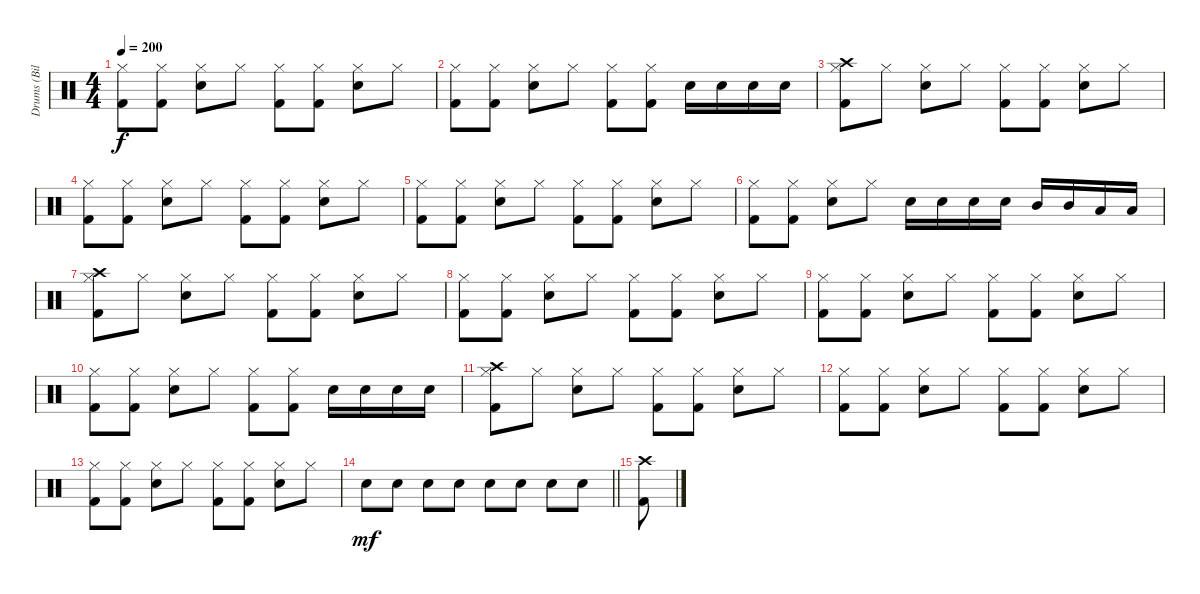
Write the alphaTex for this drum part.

\track ("Drums (Bill Stevenson)" "Drums (Bil") {instrument percussion}
\staff {score}
\articulation defaults
\ts (4 4)
\tempo 200
\clef neutral
\ks c
("Hi-Hat (closed)" "Kick (hit) 2").8{dy f} ("Hi-Hat (closed)" "Kick (hit) 2").8 ("Hi-Hat (closed)" "Electric Snare (hit)").8 "Hi-Hat (closed)".8 ("Hi-Hat (closed)" "Kick (hit) 2").8 ("Hi-Hat (closed)" "Kick (hit) 2").8 ("Hi-Hat (closed)" "Electric Snare (hit)").8 "Hi-Hat (closed)".8 |
("Hi-Hat (closed)" "Kick (hit) 2").8 ("Hi-Hat (closed)" "Kick (hit) 2").8 ("Hi-Hat (closed)" "Electric Snare (hit)").8 "Hi-Hat (closed)".8 ("Hi-Hat (closed)" "Kick (hit) 2").8 ("Hi-Hat (closed)" "Kick (hit) 2").8 "Electric Snare (hit)".16 "Electric Snare (hit)".16 "Electric Snare (hit)".16 "Electric Snare (hit)".16 |
("Hi-Hat (closed)" "Crash high (hit)" "Kick (hit) 2").8 "Hi-Hat (closed)".8 ("Hi-Hat (closed)" "Electric Snare (hit)").8 "Hi-Hat (closed)".8 ("Hi-Hat (closed)" "Kick (hit) 2").8 ("Hi-Hat (closed)" "Kick (hit) 2").8 ("Hi-Hat (closed)" "Electric Snare (hit)").8 "Hi-Hat (closed)".8 |
("Hi-Hat (closed)" "Kick (hit) 2").8 ("Hi-Hat (closed)" "Kick (hit) 2").8 ("Hi-Hat (closed)" "Electric Snare (hit)").8 "Hi-Hat (closed)".8 ("Hi-Hat (closed)" "Kick (hit) 2").8 ("Hi-Hat (closed)" "Kick (hit) 2").8 ("Hi-Hat (closed)" "Electric Snare (hit)").8 "Hi-Hat (closed)".8 |
("Hi-Hat (closed)" "Kick (hit) 2").8 ("Hi-Hat (closed)" "Kick (hit) 2").8 ("Hi-Hat (closed)" "Electric Snare (hit)").8 "Hi-Hat (closed)".8 ("Hi-Hat (closed)" "Kick (hit) 2").8 ("Hi-Hat (closed)" "Kick (hit) 2").8 ("Hi-Hat (closed)" "Electric Snare (hit)").8 "Hi-Hat (closed)".8 |
("Hi-Hat (closed)" "Kick (hit) 2").8 ("Hi-Hat (closed)" "Kick (hit) 2").8 ("Hi-Hat (closed)" "Electric Snare (hit)").8 "Hi-Hat (closed)".8 "Electric Snare (hit)".16 "Electric Snare (hit)".16 "Electric Snare (hit)".16 "Electric Snare (hit)".16 "Mid Tom (hit)".16 "Mid Tom (hit)".16 "Low Tom (hit)".16 "Low Tom (hit)".16 |
("Hi-Hat (closed)" "Crash high (hit)" "Kick (hit) 2").8 "Hi-Hat (closed)".8 ("Hi-Hat (closed)" "Electric Snare (hit)").8 "Hi-Hat (closed)".8 ("Hi-Hat (closed)" "Kick (hit) 2").8 ("Hi-Hat (closed)" "Kick (hit) 2").8 ("Hi-Hat (closed)" "Electric Snare (hit)").8 "Hi-Hat (closed)".8 |
("Hi-Hat (closed)" "Kick (hit) 2").8 ("Hi-Hat (closed)" "Kick (hit) 2").8 ("Hi-Hat (closed)" "Electric Snare (hit)").8 "Hi-Hat (closed)".8 ("Hi-Hat (closed)" "Kick (hit) 2").8 ("Hi-Hat (closed)" "Kick (hit) 2").8 ("Hi-Hat (closed)" "Electric Snare (hit)").8 "Hi-Hat (closed)".8 |
("Hi-Hat (closed)" "Kick (hit) 2").8 ("Hi-Hat (closed)" "Kick (hit) 2").8 ("Hi-Hat (closed)" "Electric Snare (hit)").8 "Hi-Hat (closed)".8 ("Hi-Hat (closed)" "Kick (hit) 2").8 ("Hi-Hat (closed)" "Kick (hit) 2").8 ("Hi-Hat (closed)" "Electric Snare (hit)").8 "Hi-Hat (closed)".8 |
("Hi-Hat (closed)" "Kick (hit) 2").8 ("Hi-Hat (closed)" "Kick (hit) 2").8 ("Hi-Hat (closed)" "Electric Snare (hit)").8 "Hi-Hat (closed)".8 ("Hi-Hat (closed)" "Kick (hit) 2").8 ("Hi-Hat (closed)" "Kick (hit) 2").8 "Electric Snare (hit)".16 "Electric Snare (hit)".16 "Electric Snare (hit)".16 "Electric Snare (hit)".16 |
("Hi-Hat (closed)" "Crash high (hit)" "Kick (hit) 2").8 "Hi-Hat (closed)".8 ("Hi-Hat (closed)" "Electric Snare (hit)").8 "Hi-Hat (closed)".8 ("Hi-Hat (closed)" "Kick (hit) 2").8 ("Hi-Hat (closed)" "Kick (hit) 2").8 ("Hi-Hat (closed)" "Electric Snare (hit)").8 "Hi-Hat (closed)".8 |
("Hi-Hat (closed)" "Kick (hit) 2").8 ("Hi-Hat (closed)" "Kick (hit) 2").8 ("Hi-Hat (closed)" "Electric Snare (hit)").8 "Hi-Hat (closed)".8 ("Hi-Hat (closed)" "Kick (hit) 2").8 ("Hi-Hat (closed)" "Kick (hit) 2").8 ("Hi-Hat (closed)" "Electric Snare (hit)").8 "Hi-Hat (closed)".8 |
("Hi-Hat (closed)" "Kick (hit) 2").8 ("Hi-Hat (closed)" "Kick (hit) 2").8 ("Hi-Hat (closed)" "Electric Snare (hit)").8 "Hi-Hat (closed)".8 ("Hi-Hat (closed)" "Kick (hit) 2").8 ("Hi-Hat (closed)" "Kick (hit) 2").8 ("Hi-Hat (closed)" "Electric Snare (hit)").8 "Hi-Hat (closed)".8 |
\barLineRight lightlight "Electric Snare (hit)".8{dy mf} "Electric Snare (hit)".8 "Electric Snare (hit)".8 "Electric Snare (hit)".8 "Electric Snare (hit)".8 "Electric Snare (hit)".8 "Electric Snare (hit)".8 "Electric Snare (hit)".8
|
("Crash high (hit)" "Kick (hit) 2").8
